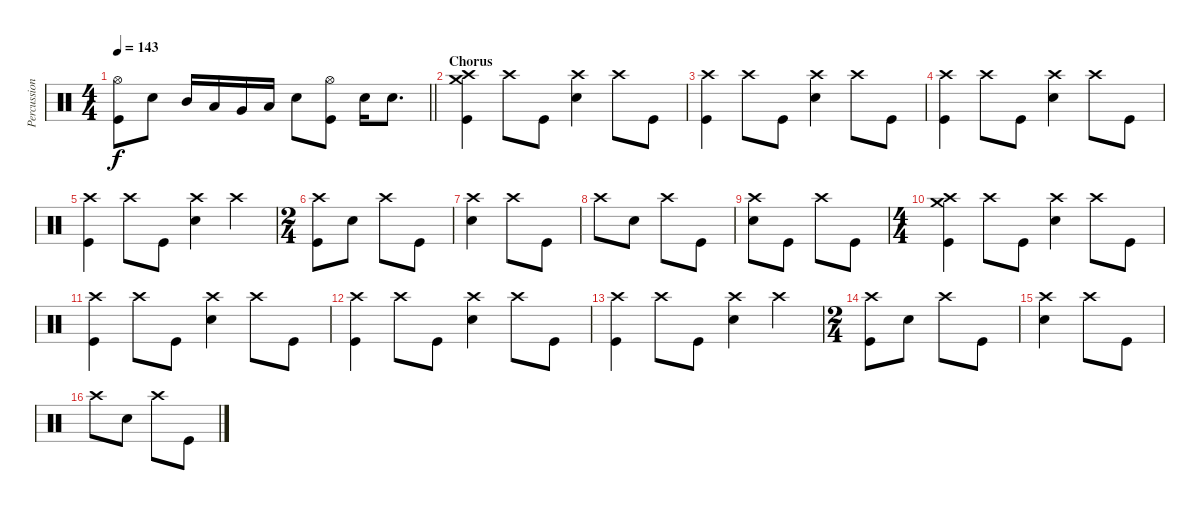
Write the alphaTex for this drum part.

\track ("Percussion" "Percussion") {instrument percussion}
\staff {score}
\articulation defaults
\ts (4 4)
\tempo 143
\clef neutral
\barLineRight lightlight
\ks c
("Hi-Hat (open)" "Kick (hit)").8{dy f} "Electric Snare (hit)".8 "Mid Tom (hit)".16 "Low Tom (hit)".16 "Very Low Tom (hit)".16 "Low Floor Tom (hit)".16 "Electric Snare (hit)".8 ("Hi-Hat (open)" "Kick (hit)").8 "Electric Snare (hit)".16 "Electric Snare (hit)".8{d} |
\section ("" "Chorus")
("Crash high (hit)" "Crash medium (hit)" "Kick (hit)").4 "Crash high (hit)".8 "Kick (hit)".8 ("Crash high (hit)" "Electric Snare (hit)").4 "Crash high (hit)".8 "Kick (hit)".8 |
("Crash high (hit)" "Kick (hit)").4 "Crash high (hit)".8 "Kick (hit)".8 ("Crash high (hit)" "Electric Snare (hit)").4 "Crash high (hit)".8 "Kick (hit)".8 |
("Crash high (hit)" "Kick (hit)").4 "Crash high (hit)".8 "Kick (hit)".8 ("Crash high (hit)" "Electric Snare (hit)").4 "Crash high (hit)".8 "Kick (hit)".8 |
("Crash high (hit)" "Kick (hit)").4 "Crash high (hit)".8 "Kick (hit)".8 ("Crash high (hit)" "Electric Snare (hit)").4 "Crash high (hit)".4 |
\ts (2 4)
("Crash high (hit)" "Kick (hit)").8 "Electric Snare (hit)".8 "Crash high (hit)".8 "Kick (hit)".8 |
("Crash high (hit)" "Electric Snare (hit)").4 "Crash high (hit)".8 "Kick (hit)".8 |
"Crash high (hit)".8 "Electric Snare (hit)".8 "Crash high (hit)".8 "Kick (hit)".8 |
("Crash high (hit)" "Electric Snare (hit)").8 "Kick (hit)".8 "Crash high (hit)".8 "Kick (hit)".8 |
\ts (4 4)
("Crash high (hit)" "Crash medium (hit)" "Kick (hit)").4 "Crash high (hit)".8 "Kick (hit)".8 ("Crash high (hit)" "Electric Snare (hit)").4 "Crash high (hit)".8 "Kick (hit)".8 |
("Crash high (hit)" "Kick (hit)").4 "Crash high (hit)".8 "Kick (hit)".8 ("Crash high (hit)" "Electric Snare (hit)").4 "Crash high (hit)".8 "Kick (hit)".8 |
("Crash high (hit)" "Kick (hit)").4 "Crash high (hit)".8 "Kick (hit)".8 ("Crash high (hit)" "Electric Snare (hit)").4 "Crash high (hit)".8 "Kick (hit)".8 |
("Crash high (hit)" "Kick (hit)").4 "Crash high (hit)".8 "Kick (hit)".8 ("Crash high (hit)" "Electric Snare (hit)").4 "Crash high (hit)".4 |
\ts (2 4)
("Crash high (hit)" "Kick (hit)").8 "Electric Snare (hit)".8 "Crash high (hit)".8 "Kick (hit)".8 |
("Crash high (hit)" "Electric Snare (hit)").4 "Crash high (hit)".8 "Kick (hit)".8 |
"Crash high (hit)".8 "Electric Snare (hit)".8 "Crash high (hit)".8 "Kick (hit)".8
